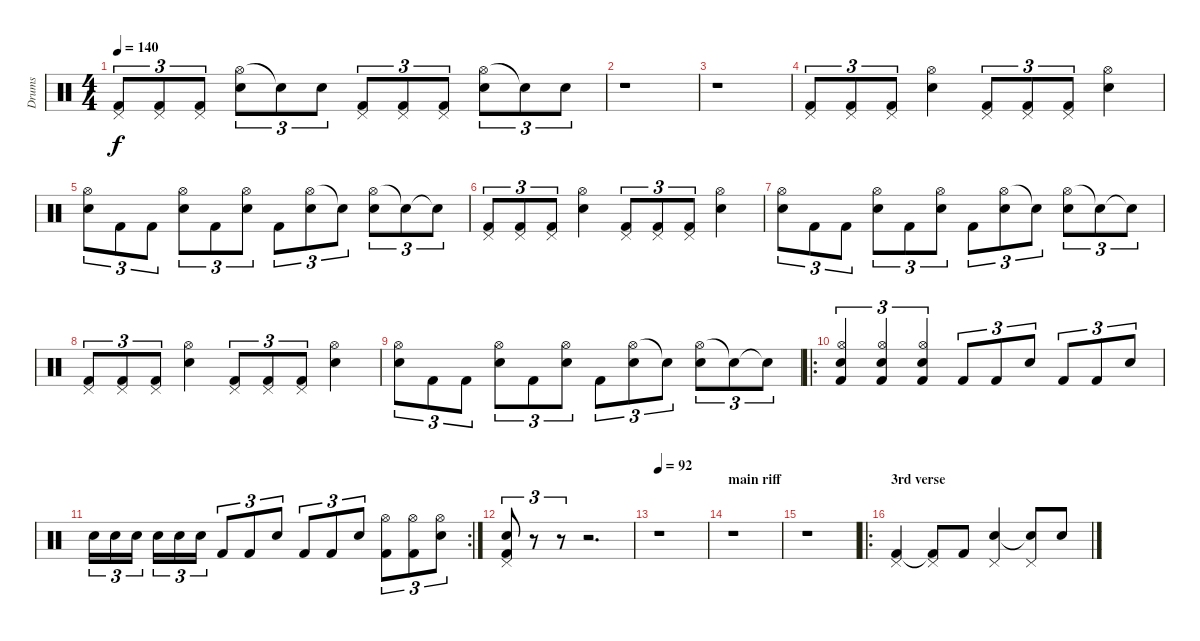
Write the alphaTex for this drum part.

\track ("Drums" "Drums") {instrument percussion}
\staff {score}
\articulation defaults
\ts (4 4)
\tempo 140
\clef neutral
\ks c
("Pedal Hi-Hat (hit)" "Kick (hit) 2").8{tu (3 2) dy f} ("Pedal Hi-Hat (hit)" "Kick (hit) 2").8{tu (3 2)} ("Pedal Hi-Hat (hit)" "Kick (hit) 2").8{tu (3 2)} ("Hi-Hat (open)" "Snare (hit) 2").8{tu (3 2)} "Snare (hit)"{t}.8{tu (3 2)} "Snare (hit) 2".8{tu (3 2)} ("Pedal Hi-Hat (hit)" "Kick (hit) 2").8{tu (3 2)} ("Pedal Hi-Hat (hit)" "Kick (hit) 2").8{tu (3 2)} ("Pedal Hi-Hat (hit)" "Kick (hit) 2").8{tu (3 2)} ("Hi-Hat (open)" "Snare (hit) 2").8{tu (3 2)} "Snare (hit)"{t}.8{tu (3 2)} "Snare (hit) 2".8{tu (3 2)} |
r.1 |
r.1 |
("Pedal Hi-Hat (hit)" "Kick (hit) 2").8{tu (3 2)} ("Pedal Hi-Hat (hit)" "Kick (hit) 2").8{tu (3 2)} ("Pedal Hi-Hat (hit)" "Kick (hit) 2").8{tu (3 2)} ("Hi-Hat (open)" "Snare (hit) 2").4 ("Pedal Hi-Hat (hit)" "Kick (hit) 2").8{tu (3 2)} ("Pedal Hi-Hat (hit)" "Kick (hit) 2").8{tu (3 2)} ("Pedal Hi-Hat (hit)" "Kick (hit) 2").8{tu (3 2)} ("Hi-Hat (open)" "Snare (hit) 2").4 |
("Hi-Hat (open)" "Snare (hit) 2").8{tu (3 2)} "Kick (hit) 2".8{tu (3 2)} "Kick (hit) 2".8{tu (3 2)} ("Hi-Hat (open)" "Snare (hit) 2").8{tu (3 2)} "Kick (hit) 2".8{tu (3 2)} ("Hi-Hat (open)" "Snare (hit) 2").8{tu (3 2)} "Kick (hit) 2".8{tu (3 2)} ("Hi-Hat (open)" "Snare (hit) 2").8{tu (3 2)} "Snare (hit)"{t}.8{tu (3 2)} ("Hi-Hat (open)" "Snare (hit) 2").8{tu (3 2)} "Snare (hit)"{t}.8{tu (3 2)} "Snare (hit)"{t}.8{tu (3 2)} |
("Pedal Hi-Hat (hit)" "Kick (hit) 2").8{tu (3 2)} ("Pedal Hi-Hat (hit)" "Kick (hit) 2").8{tu (3 2)} ("Pedal Hi-Hat (hit)" "Kick (hit) 2").8{tu (3 2)} ("Hi-Hat (open)" "Snare (hit) 2").4 ("Pedal Hi-Hat (hit)" "Kick (hit) 2").8{tu (3 2)} ("Pedal Hi-Hat (hit)" "Kick (hit) 2").8{tu (3 2)} ("Pedal Hi-Hat (hit)" "Kick (hit) 2").8{tu (3 2)} ("Hi-Hat (open)" "Snare (hit) 2").4 |
("Hi-Hat (open)" "Snare (hit) 2").8{tu (3 2)} "Kick (hit) 2".8{tu (3 2)} "Kick (hit) 2".8{tu (3 2)} ("Hi-Hat (open)" "Snare (hit) 2").8{tu (3 2)} "Kick (hit) 2".8{tu (3 2)} ("Hi-Hat (open)" "Snare (hit) 2").8{tu (3 2)} "Kick (hit) 2".8{tu (3 2)} ("Hi-Hat (open)" "Snare (hit) 2").8{tu (3 2)} "Snare (hit)"{t}.8{tu (3 2)} ("Hi-Hat (open)" "Snare (hit) 2").8{tu (3 2)} "Snare (hit)"{t}.8{tu (3 2)} "Snare (hit)"{t}.8{tu (3 2)} |
("Pedal Hi-Hat (hit)" "Kick (hit) 2").8{tu (3 2)} ("Pedal Hi-Hat (hit)" "Kick (hit) 2").8{tu (3 2)} ("Pedal Hi-Hat (hit)" "Kick (hit) 2").8{tu (3 2)} ("Hi-Hat (open)" "Snare (hit) 2").4 ("Pedal Hi-Hat (hit)" "Kick (hit) 2").8{tu (3 2)} ("Pedal Hi-Hat (hit)" "Kick (hit) 2").8{tu (3 2)} ("Pedal Hi-Hat (hit)" "Kick (hit) 2").8{tu (3 2)} ("Hi-Hat (open)" "Snare (hit) 2").4 |
("Hi-Hat (open)" "Snare (hit) 2").8{tu (3 2)} "Kick (hit) 2".8{tu (3 2)} "Kick (hit) 2".8{tu (3 2)} ("Hi-Hat (open)" "Snare (hit) 2").8{tu (3 2)} "Kick (hit) 2".8{tu (3 2)} ("Hi-Hat (open)" "Snare (hit) 2").8{tu (3 2)} "Kick (hit) 2".8{tu (3 2)} ("Hi-Hat (open)" "Snare (hit) 2").8{tu (3 2)} "Snare (hit)"{t}.8{tu (3 2)} ("Hi-Hat (open)" "Snare (hit) 2").8{tu (3 2)} "Snare (hit)"{t}.8{tu (3 2)} "Snare (hit)"{t}.8{tu (3 2)} |
\ro
("Hi-Hat (open)" "Snare (hit) 2" "Kick (hit) 2").4{tu (3 2)} ("Hi-Hat (open)" "Snare (hit) 2" "Kick (hit) 2").4{tu (3 2)} ("Hi-Hat (open)" "Snare (hit) 2" "Kick (hit) 2").4{tu (3 2)} "Kick (hit) 2".8{tu (3 2)} "Kick (hit) 2".8{tu (3 2)} "Snare (hit) 2".8{tu (3 2)} "Kick (hit) 2".8{tu (3 2)} "Kick (hit) 2".8{tu (3 2)} "Snare (hit) 2".8{tu (3 2)} |
\rc 2 "Snare (hit) 2".16{tu (3 2)} "Snare (hit) 2".16{tu (3 2)} "Snare (hit) 2".16{tu (3 2)} "Snare (hit) 2".16{tu (3 2)} "Snare (hit) 2".16{tu (3 2)} "Snare (hit) 2".16{tu (3 2)} "Kick (hit) 2".8{tu (3 2)} "Kick (hit) 2".8{tu (3 2)} "Snare (hit) 2".8{tu (3 2)} "Kick (hit) 2".8{tu (3 2)} "Kick (hit) 2".8{tu (3 2)} "Snare (hit) 2".8{tu (3 2)}
("Hi-Hat (open)" "Kick (hit) 2").8{tu (3 2)} ("Hi-Hat (open)" "Kick (hit) 2").8{tu (3 2)} ("Hi-Hat (open)" "Snare (hit) 2").8{tu (3 2)} |
("Pedal Hi-Hat (hit)" "Snare (hit) 2" "Kick (hit) 2").8{tu (3 2)} r.8{tu (3 2)} r.8{tu (3 2)} r.2{d} |
\tempo 92
r.1 |
\section ("" "main riff")
r.1 |
r.1 |
\ro
\section ("" "3rd verse")
("Pedal Hi-Hat (hit)" "Kick (hit) 2").4 ("Pedal Hi-Hat (hit)" "Kick (hit) 2"{t}).8 "Kick (hit) 2".8 ("Pedal Hi-Hat (hit)" "Snare (hit) 2").4 ("Pedal Hi-Hat (hit)" "Snare (hit)"{t}).8 "Snare (hit) 2".8
